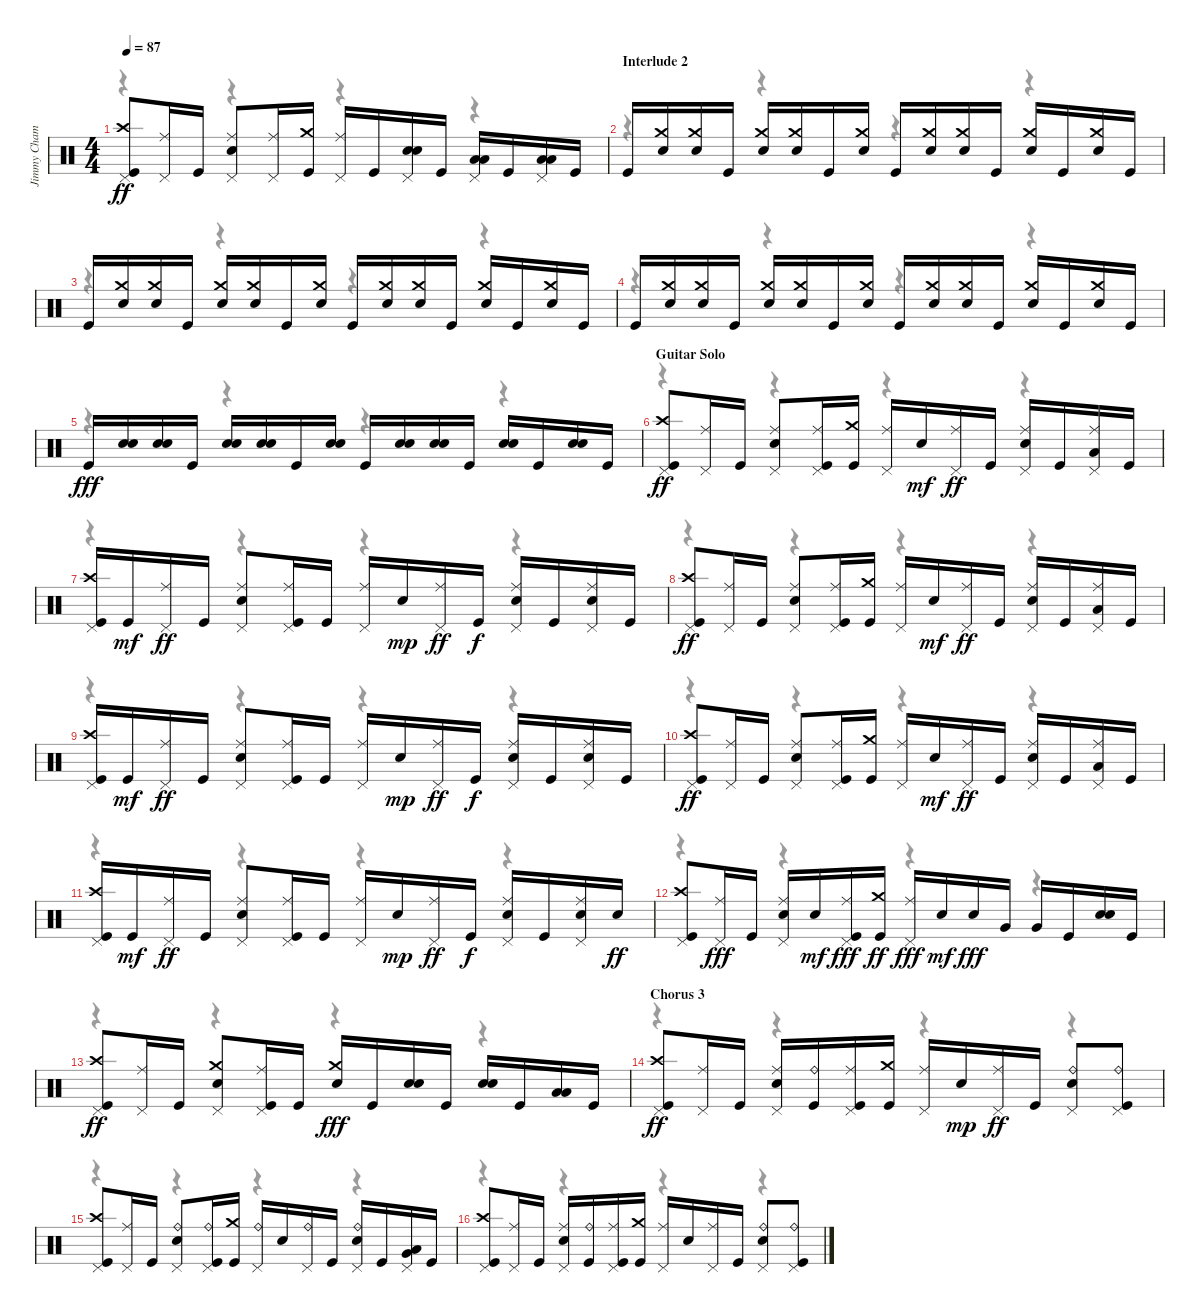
\track ("Jimmy Chamberlin - Drums" "Jimmy Cham") {instrument percussion}
\staff {score}
\articulation defaults
\voice
\ts (4 4)
\tempo 87
\clef neutral
\ks c
("Crash high (hit)" "Pedal Hi-Hat (hit)" "Kick (hit)").8{dy ff} ("Ride (middle)" "Pedal Hi-Hat (hit)").16 "Kick (hit)".16 ("Ride (middle)" "Pedal Hi-Hat (hit)" "Snare (hit) 2").8 ("Ride (middle)" "Pedal Hi-Hat (hit)").16 ("Crash medium (hit)" "Kick (hit)").16 ("Ride (middle)" "Pedal Hi-Hat (hit)").16 "Kick (hit)".16 ("Pedal Hi-Hat (hit)" "Snare (hit) 2" "Snare (hit) 2").16 "Kick (hit)".16 ("Pedal Hi-Hat (hit)" "Low Tom (hit)" "Low Tom (hit)").16 "Kick (hit)".16 ("Pedal Hi-Hat (hit)" "Low Tom (hit)" "Low Tom (hit)").16 "Kick (hit)".16 |
\section ("" "Interlude 2")
"Kick (hit)".16 ("Crash medium (hit)" "Snare (hit) 2").16 ("Crash medium (hit)" "Snare (hit) 2").16 "Kick (hit)".16 ("Crash medium (hit)" "Snare (hit) 2").16 ("Crash medium (hit)" "Snare (hit) 2").16 "Kick (hit)".16 ("Crash medium (hit)" "Snare (hit) 2").16 "Kick (hit)".16 ("Crash medium (hit)" "Snare (hit) 2").16 ("Crash medium (hit)" "Snare (hit) 2").16 "Kick (hit)".16 ("Crash medium (hit)" "Snare (hit) 2").16 "Kick (hit)".16 ("Crash medium (hit)" "Snare (hit) 2").16 "Kick (hit)".16 |
"Kick (hit)".16 ("Crash medium (hit)" "Snare (hit) 2").16 ("Crash medium (hit)" "Snare (hit) 2").16 "Kick (hit)".16 ("Crash medium (hit)" "Snare (hit) 2").16 ("Crash medium (hit)" "Snare (hit) 2").16 "Kick (hit)".16 ("Crash medium (hit)" "Snare (hit) 2").16 "Kick (hit)".16 ("Crash medium (hit)" "Snare (hit) 2").16 ("Crash medium (hit)" "Snare (hit) 2").16 "Kick (hit)".16 ("Crash medium (hit)" "Snare (hit) 2").16 "Kick (hit)".16 ("Crash medium (hit)" "Snare (hit) 2").16 "Kick (hit)".16 |
"Kick (hit)".16 ("Crash medium (hit)" "Snare (hit) 2").16 ("Crash medium (hit)" "Snare (hit) 2").16 "Kick (hit)".16 ("Crash medium (hit)" "Snare (hit) 2").16 ("Crash medium (hit)" "Snare (hit) 2").16 "Kick (hit)".16 ("Crash medium (hit)" "Snare (hit) 2").16 "Kick (hit)".16 ("Crash medium (hit)" "Snare (hit) 2").16 ("Crash medium (hit)" "Snare (hit) 2").16 "Kick (hit)".16 ("Crash medium (hit)" "Snare (hit) 2").16 "Kick (hit)".16 ("Crash medium (hit)" "Snare (hit) 2").16 "Kick (hit)".16 |
"Kick (hit)".16{dy fff} ("Snare (hit) 2" "Snare (hit) 2").16 ("Snare (hit) 2" "Snare (hit) 2").16 "Kick (hit)".16 ("Snare (hit) 2" "Snare (hit) 2").16 ("Snare (hit) 2" "Snare (hit) 2").16 "Kick (hit)".16 ("Snare (hit) 2" "Snare (hit) 2").16 "Kick (hit)".16 ("Snare (hit) 2" "Snare (hit) 2").16 ("Snare (hit) 2" "Snare (hit) 2").16 "Kick (hit)".16 ("Snare (hit) 2" "Snare (hit) 2").16 "Kick (hit)".16 ("Snare (hit) 2" "Snare (hit) 2").16 "Kick (hit)".16 |
\section ("" "Guitar Solo")
("Crash high (hit)" "Pedal Hi-Hat (hit)" "Kick (hit)").8{dy ff} ("Ride (middle)" "Pedal Hi-Hat (hit)").16 "Kick (hit)".16 ("Ride (middle)" "Pedal Hi-Hat (hit)" "Snare (hit) 2").8 ("Ride (middle)" "Pedal Hi-Hat (hit)" "Kick (hit)").16 ("Crash medium (hit)" "Kick (hit)").16 ("Ride (middle)" "Pedal Hi-Hat (hit)").16 "Snare (hit) 2".16{dy mf} ("Ride (middle)" "Pedal Hi-Hat (hit)").16{dy ff} "Kick (hit)".16 ("Ride (middle)" "Pedal Hi-Hat (hit)" "Snare (hit) 2").16 "Kick (hit)".16 ("Ride (middle)" "Pedal Hi-Hat (hit)" "Low Tom (hit)").16 "Kick (hit)".16 |
("Crash high (hit)" "Pedal Hi-Hat (hit)" "Kick (hit)").16 "Kick (hit)".16{dy mf} ("Ride (middle)" "Pedal Hi-Hat (hit)").16{dy ff} "Kick (hit)".16 ("Ride (middle)" "Pedal Hi-Hat (hit)" "Snare (hit) 2").8 ("Ride (middle)" "Pedal Hi-Hat (hit)" "Kick (hit)").16 "Kick (hit)".16 ("Ride (middle)" "Pedal Hi-Hat (hit)").16 "Snare (hit) 2".16{dy mp} ("Ride (middle)" "Pedal Hi-Hat (hit)").16{dy ff} "Kick (hit)".16{dy f} ("Ride (middle)" "Pedal Hi-Hat (hit)" "Snare (hit) 2").16 "Kick (hit)".16 ("Ride (middle)" "Pedal Hi-Hat (hit)" "Snare (hit) 2").16 "Kick (hit)".16 |
("Crash high (hit)" "Pedal Hi-Hat (hit)" "Kick (hit)").8{dy ff} ("Ride (middle)" "Pedal Hi-Hat (hit)").16 "Kick (hit)".16 ("Ride (middle)" "Pedal Hi-Hat (hit)" "Snare (hit) 2").8 ("Ride (middle)" "Pedal Hi-Hat (hit)" "Kick (hit)").16 ("Crash medium (hit)" "Kick (hit)").16 ("Ride (middle)" "Pedal Hi-Hat (hit)").16 "Snare (hit) 2".16{dy mf} ("Ride (middle)" "Pedal Hi-Hat (hit)").16{dy ff} "Kick (hit)".16 ("Ride (middle)" "Pedal Hi-Hat (hit)" "Snare (hit) 2").16 "Kick (hit)".16 ("Ride (middle)" "Pedal Hi-Hat (hit)" "Low Tom (hit)").16 "Kick (hit)".16 |
("Crash high (hit)" "Pedal Hi-Hat (hit)" "Kick (hit)").16 "Kick (hit)".16{dy mf} ("Ride (middle)" "Pedal Hi-Hat (hit)").16{dy ff} "Kick (hit)".16 ("Ride (middle)" "Pedal Hi-Hat (hit)" "Snare (hit) 2").8 ("Ride (middle)" "Pedal Hi-Hat (hit)" "Kick (hit)").16 "Kick (hit)".16 ("Ride (middle)" "Pedal Hi-Hat (hit)").16 "Snare (hit) 2".16{dy mp} ("Ride (middle)" "Pedal Hi-Hat (hit)").16{dy ff} "Kick (hit)".16{dy f} ("Ride (middle)" "Pedal Hi-Hat (hit)" "Snare (hit) 2").16 "Kick (hit)".16 ("Ride (middle)" "Pedal Hi-Hat (hit)" "Snare (hit) 2").16 "Kick (hit)".16 |
("Crash high (hit)" "Pedal Hi-Hat (hit)" "Kick (hit)").8{dy ff} ("Ride (middle)" "Pedal Hi-Hat (hit)").16 "Kick (hit)".16 ("Ride (middle)" "Pedal Hi-Hat (hit)" "Snare (hit) 2").8 ("Ride (middle)" "Pedal Hi-Hat (hit)" "Kick (hit)").16 ("Crash medium (hit)" "Kick (hit)").16 ("Ride (middle)" "Pedal Hi-Hat (hit)").16 "Snare (hit) 2".16{dy mf} ("Ride (middle)" "Pedal Hi-Hat (hit)").16{dy ff} "Kick (hit)".16 ("Ride (middle)" "Pedal Hi-Hat (hit)" "Snare (hit) 2").16 "Kick (hit)".16 ("Ride (middle)" "Pedal Hi-Hat (hit)" "Low Tom (hit)").16 "Kick (hit)".16 |
("Crash high (hit)" "Pedal Hi-Hat (hit)" "Kick (hit)").16 "Kick (hit)".16{dy mf} ("Ride (middle)" "Pedal Hi-Hat (hit)").16{dy ff} "Kick (hit)".16 ("Ride (middle)" "Pedal Hi-Hat (hit)" "Snare (hit) 2").8 ("Ride (middle)" "Pedal Hi-Hat (hit)" "Kick (hit)").16 "Kick (hit)".16 ("Ride (middle)" "Pedal Hi-Hat (hit)").16 "Snare (hit) 2".16{dy mp} ("Ride (middle)" "Pedal Hi-Hat (hit)").16{dy ff} "Kick (hit)".16{dy f} ("Ride (middle)" "Pedal Hi-Hat (hit)" "Snare (hit) 2").16 "Kick (hit)".16 ("Ride (middle)" "Pedal Hi-Hat (hit)" "Snare (hit) 2").16 "Snare (hit) 2".16{dy ff} |
("Crash high (hit)" "Pedal Hi-Hat (hit)" "Kick (hit)").8 ("Ride (middle)" "Pedal Hi-Hat (hit)").16{dy fff} "Kick (hit)".16 ("Ride (middle)" "Pedal Hi-Hat (hit)" "Snare (hit) 2").16 "Snare (hit) 2".16{dy mf} ("Ride (middle)" "Pedal Hi-Hat (hit)" "Kick (hit)").16{dy fff} ("Crash medium (hit)" "Kick (hit)").16{dy ff} ("Ride (middle)" "Pedal Hi-Hat (hit)").16{dy fff} "Snare (hit) 2".16{dy mf} "Snare (hit) 2".16{dy fff} "Very Low Tom (hit)".16 "Very Low Tom (hit)".16 "Kick (hit)".16 ("Snare (hit) 2" "Snare (hit) 2").16 "Kick (hit)".16 |
("Crash high (hit)" "Pedal Hi-Hat (hit)" "Kick (hit)").8{dy ff} ("Ride (middle)" "Pedal Hi-Hat (hit)").16 "Kick (hit)".16 ("Crash medium (hit)" "Pedal Hi-Hat (hit)" "Snare (hit) 2").8 ("Ride (middle)" "Pedal Hi-Hat (hit)" "Kick (hit)").16 "Kick (hit)".16 ("Crash medium (hit)" "Snare (hit) 2").16{dy fff} "Kick (hit)".16 ("Snare (hit) 2" "Snare (hit) 2").16 "Kick (hit)".16 ("Snare (hit) 2" "Snare (hit) 2").16 "Kick (hit)".16 ("Low Tom (hit)" "Low Tom (hit)").16 "Kick (hit)".16 |
\section ("" "Chorus 3")
("Crash high (hit)" "Pedal Hi-Hat (hit)" "Kick (hit)").8{dy ff} ("Ride (middle)" "Pedal Hi-Hat (hit)").16 "Kick (hit)".16 ("Ride (middle)" "Pedal Hi-Hat (hit)" "Snare (hit) 2").16 ("Ride (bell)" "Kick (hit)").16 ("Ride (middle)" "Pedal Hi-Hat (hit)" "Kick (hit)").16 ("Crash medium (hit)" "Kick (hit)").16 ("Ride (middle)" "Pedal Hi-Hat (hit)").16 "Snare (hit) 2".16{dy mp} ("Ride (middle)" "Pedal Hi-Hat (hit)").16{dy ff} "Kick (hit)".16 ("Ride (bell)" "Pedal Hi-Hat (hit)" "Snare (hit) 2").8 ("Ride (bell)" "Pedal Hi-Hat (hit)" "Kick (hit)").8 |
("Crash high (hit)" "Pedal Hi-Hat (hit)" "Kick (hit)").8 ("Ride (middle)" "Pedal Hi-Hat (hit)").16 "Kick (hit)".16 ("Ride (bell)" "Pedal Hi-Hat (hit)" "Snare (hit) 2").8 ("Ride (bell)" "Pedal Hi-Hat (hit)" "Kick (hit)").16 ("Crash medium (hit)" "Kick (hit)").16 ("Ride (bell)" "Pedal Hi-Hat (hit)").16 "Snare (hit) 2".16 ("Ride (bell)" "Pedal Hi-Hat (hit)").16 "Kick (hit)".16 ("Ride (bell)" "Pedal Hi-Hat (hit)" "Snare (hit) 2").16 "Kick (hit)".16 ("Pedal Hi-Hat (hit)" "Low Tom (hit)" "Very Low Tom (hit)").16 "Kick (hit)".16 |
("Crash high (hit)" "Pedal Hi-Hat (hit)" "Kick (hit)").8 ("Ride (middle)" "Pedal Hi-Hat (hit)").16 "Kick (hit)".16 ("Ride (middle)" "Pedal Hi-Hat (hit)" "Snare (hit) 2").16 ("Ride (bell)" "Kick (hit)").16 ("Ride (middle)" "Pedal Hi-Hat (hit)" "Kick (hit)").16 ("Crash medium (hit)" "Kick (hit)").16 ("Ride (middle)" "Pedal Hi-Hat (hit)").16 "Snare (hit) 2".16 ("Ride (middle)" "Pedal Hi-Hat (hit)").16 "Kick (hit)".16 ("Ride (bell)" "Pedal Hi-Hat (hit)" "Snare (hit) 2").8 ("Ride (bell)" "Pedal Hi-Hat (hit)" "Kick (hit)").8
\voice
\clef neutral
\ottava regular
\simile none
\ks c
r.4{dy f} r.4 r.4 r.4 |
r.4 r.4 r.4 r.4 |
r.4 r.4 r.4 r.4 |
r.4 r.4 r.4 r.4 |
r.4 r.4 r.4 r.4 |
r.4 r.4 r.4 r.4 |
r.4 r.4 r.4 r.4 |
r.4 r.4 r.4 r.4 |
r.4 r.4 r.4 r.4 |
r.4 r.4 r.4 r.4 |
r.4 r.4 r.4 r.4 |
r.4 r.4 r.4 r.4 |
r.4 r.4 r.4 r.4 |
r.4 r.4 r.4 r.4 |
r.4 r.4 r.4 r.4 |
r.4 r.4 r.4 r.4
